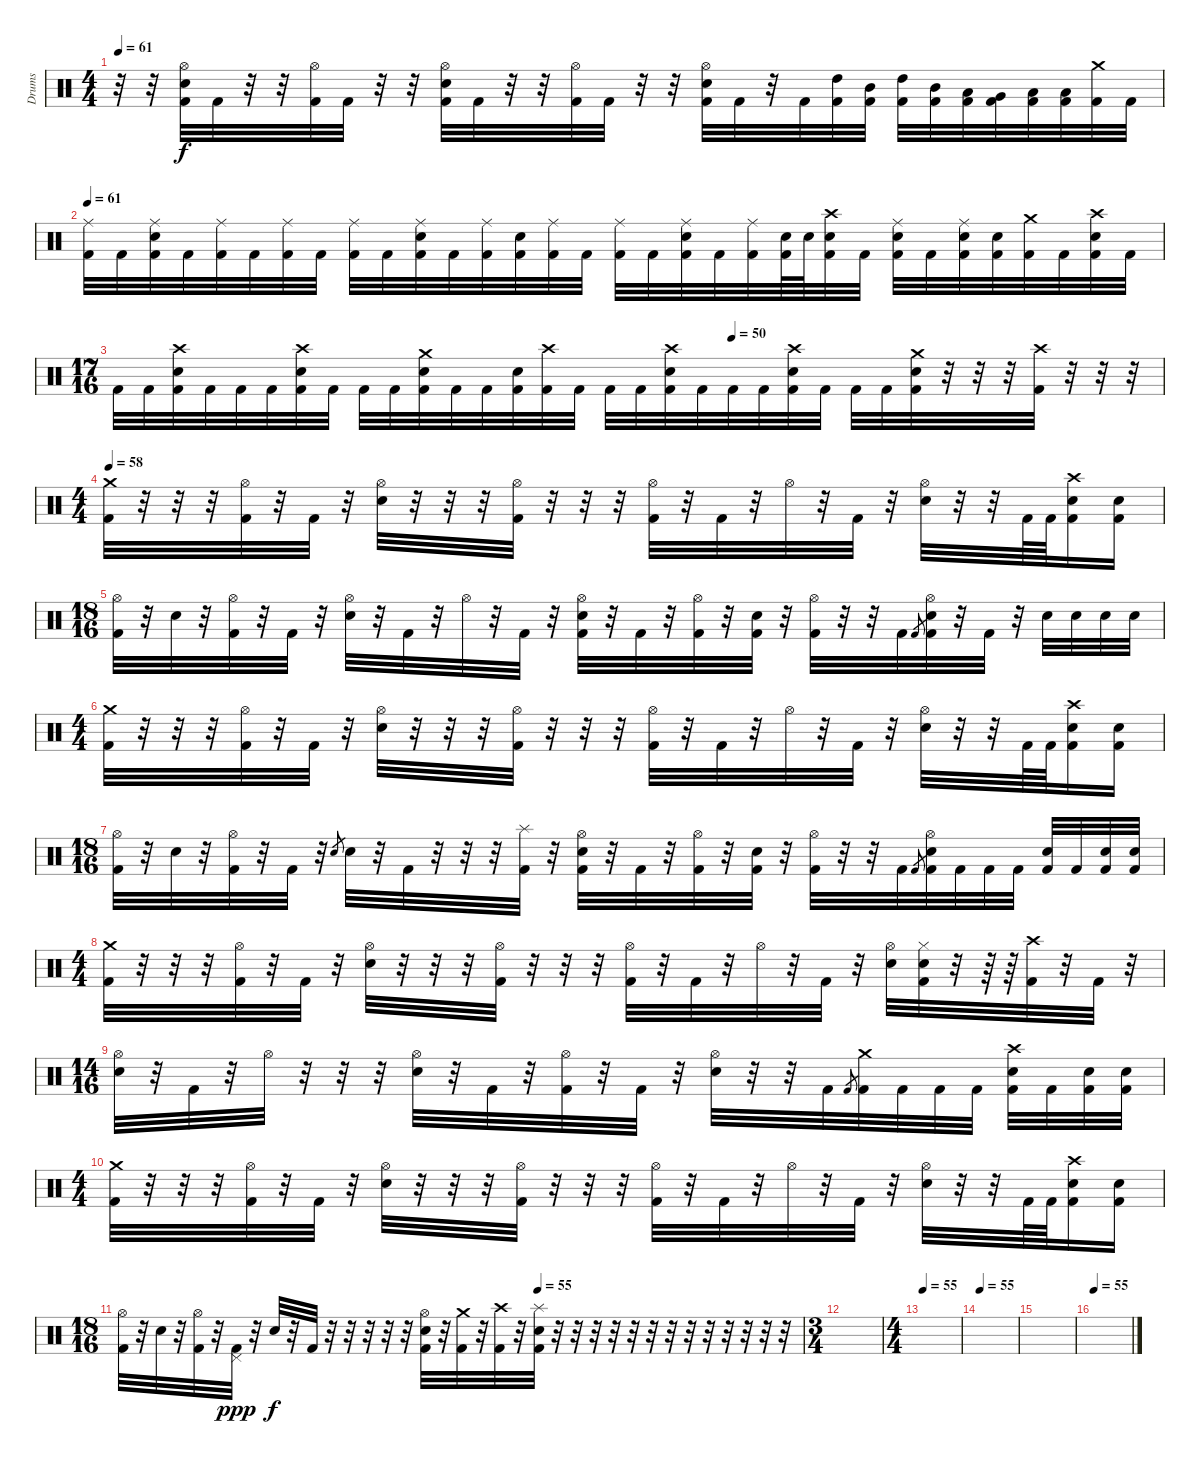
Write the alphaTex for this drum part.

\track ("Drums" "Drums") {instrument percussion}
\staff {score}
\articulation defaults
\ts (4 4)
\tempo 61
\clef neutral
\ks c
r.32{dy f} r.32 ("Hi-Hat (open)" "Electric Snare (hit)" "Kick (hit) 2").32 "Kick (hit) 2".32 r.32 r.32 ("Hi-Hat (open)" "Kick (hit) 2").32 "Kick (hit) 2".32 r.32 r.32 ("Hi-Hat (open)" "Electric Snare (hit)" "Kick (hit) 2").32 "Kick (hit) 2".32 r.32 r.32 ("Hi-Hat (open)" "Kick (hit) 2").32 "Kick (hit) 2".32 r.32 r.32 ("Hi-Hat (open)" "Electric Snare (hit)" "Kick (hit) 2").32 "Kick (hit) 2".32 r.32 "Kick (hit) 2".32 ("High Tom (hit)" "Kick (hit) 2").32 ("Mid Tom (hit)" "Kick (hit) 2").32 ("High Tom (hit)" "Kick (hit) 2").32 ("Mid Tom (hit)" "Kick (hit) 2").32 ("Low Tom (hit)" "Kick (hit) 2").32 ("Very Low Tom (hit)" "Kick (hit) 2").32 ("Low Floor Tom (hit)" "Kick (hit) 2").32 ("Low Floor Tom (hit)" "Kick (hit) 2").32 ("Crash medium (hit)" "Kick (hit) 2").32 "Kick (hit) 2".32 |
\tempo 61
("Ride (middle)" "Kick (hit) 2").32 "Kick (hit) 2".32 ("Ride (middle)" "Electric Snare (hit)" "Kick (hit) 2").32 "Kick (hit) 2".32 ("Ride (middle)" "Kick (hit) 2").32 "Kick (hit) 2".32 ("Ride (middle)" "Kick (hit) 2").32 "Kick (hit) 2".32 ("Ride (middle)" "Kick (hit) 2").32 "Kick (hit) 2".32 ("Ride (middle)" "Electric Snare (hit)" "Kick (hit) 2").32 "Kick (hit) 2".32 ("Ride (middle)" "Kick (hit) 2").32 ("Electric Snare (hit)" "Kick (hit) 2").32 ("Ride (middle)" "Kick (hit) 2").32 "Kick (hit) 2".32 ("Ride (middle)" "Kick (hit) 2").32 "Kick (hit) 2".32 ("Ride (middle)" "Electric Snare (hit)" "Kick (hit) 2").32 "Kick (hit) 2".32 ("Ride (middle)" "Kick (hit) 2").32 ("Electric Snare (hit)" "Kick (hit) 2").64 "Electric Snare (hit)".64 ("Crash high (hit)" "Electric Snare (hit)" "Kick (hit) 2").32 "Kick (hit) 2".32 ("Ride (middle)" "Electric Snare (hit)" "Kick (hit) 2").32 "Kick (hit) 2".32 ("Ride (middle)" "Electric Snare (hit)" "Kick (hit) 2").32 ("Electric Snare (hit)" "Kick (hit) 2").32 ("Crash medium (hit)" "Kick (hit) 2").32 "Kick (hit) 2".32 ("Crash high (hit)" "Electric Snare (hit)" "Kick (hit) 2").32 "Kick (hit) 2".32 |
\ts (17 16)
\tempo (50 0.5882352941176471)
"Kick (hit) 2".32 "Kick (hit) 2".32 ("Crash high (hit)" "Electric Snare (hit)" "Kick (hit) 2").32 "Kick (hit) 2".32 "Kick (hit) 2".32 "Kick (hit) 2".32 ("Crash high (hit)" "Electric Snare (hit)" "Kick (hit) 2").32 "Kick (hit) 2".32 "Kick (hit) 2".32 "Kick (hit) 2".32 ("Crash medium (hit)" "Electric Snare (hit)" "Kick (hit) 2").32 "Kick (hit) 2".32 "Kick (hit) 2".32 ("Electric Snare (hit)" "Kick (hit) 2").32 ("Crash high (hit)" "Kick (hit) 2").32 "Kick (hit) 2".32 "Kick (hit) 2".32 "Kick (hit) 2".32 ("Crash high (hit)" "Electric Snare (hit)" "Kick (hit) 2").32 "Kick (hit) 2".32 "Kick (hit) 2".32 "Kick (hit) 2".32 ("Crash high (hit)" "Electric Snare (hit)" "Kick (hit) 2").32 "Kick (hit) 2".32 "Kick (hit) 2".32 "Kick (hit) 2".32 ("Crash medium (hit)" "Electric Snare (hit)" "Kick (hit) 2").32 r.32 r.32 r.32 ("Crash high (hit)" "Kick (hit) 2").32 r.32 r.32 r.32 |
\ts (4 4)
\tempo 58
("Crash medium (hit)" "Kick (hit) 2").32 r.32 r.32 r.32 ("Hi-Hat (open)" "Kick (hit) 2").32 r.32 "Kick (hit) 2".32 r.32 ("Hi-Hat (open)" "Electric Snare (hit)").32 r.32 r.32 r.32 ("Hi-Hat (open)" "Kick (hit) 2").32 r.32 r.32 r.32 ("Hi-Hat (open)" "Kick (hit) 2").32 r.32 "Kick (hit) 2".32 r.32 "Hi-Hat (open)".32 r.32 "Kick (hit) 2".32 r.32 ("Hi-Hat (open)" "Electric Snare (hit)").32 r.32 r.32 "Kick (hit) 2".64 "Kick (hit) 2".64 ("Crash high (hit)" "Electric Snare (hit)" "Kick (hit) 2").16 ("Electric Snare (hit)" "Kick (hit) 2").16 |
\ts (18 16)
("Hi-Hat (open)" "Kick (hit) 2").32 r.32 "Electric Snare (hit)".32 r.32 ("Hi-Hat (open)" "Kick (hit) 2").32 r.32 "Kick (hit) 2".32 r.32 ("Hi-Hat (open)" "Electric Snare (hit)").32 r.32 "Kick (hit) 2".32 r.32 "Hi-Hat (open)".32 r.32 "Kick (hit) 2".32 r.32 ("Hi-Hat (open)" "Electric Snare (hit)" "Kick (hit) 2").32 r.32 "Kick (hit) 2".32 r.32 ("Hi-Hat (open)" "Kick (hit) 2").32 r.32 ("Electric Snare (hit)" "Kick (hit) 2").32 r.32 ("Hi-Hat (open)" "Kick (hit) 2").32 r.32 r.32 "Kick (hit) 2".32 "Kick (hit) 2".8{gr} ("Hi-Hat (open)" "Electric Snare (hit)" "Kick (hit) 2").32 r.32 "Kick (hit) 2".32 r.32 "Electric Snare (hit)".32 "Electric Snare (hit)".32 "Electric Snare (hit)".32 "Electric Snare (hit)".32 |
\ts (4 4)
("Crash medium (hit)" "Kick (hit) 2").32 r.32 r.32 r.32 ("Hi-Hat (open)" "Kick (hit) 2").32 r.32 "Kick (hit) 2".32 r.32 ("Hi-Hat (open)" "Electric Snare (hit)").32 r.32 r.32 r.32 ("Hi-Hat (open)" "Kick (hit) 2").32 r.32 r.32 r.32 ("Hi-Hat (open)" "Kick (hit) 2").32 r.32 "Kick (hit) 2".32 r.32 "Hi-Hat (open)".32 r.32 "Kick (hit) 2".32 r.32 ("Hi-Hat (open)" "Electric Snare (hit)").32 r.32 r.32 "Kick (hit) 2".64 "Kick (hit) 2".64 ("Crash high (hit)" "Electric Snare (hit)" "Kick (hit) 2").16 ("Electric Snare (hit)" "Kick (hit) 2").16 |
\ts (18 16)
("Hi-Hat (open)" "Kick (hit) 2").32 r.32 "Electric Snare (hit)".32 r.32 ("Hi-Hat (open)" "Kick (hit) 2").32 r.32 "Kick (hit) 2".32 r.32 "Electric Snare (hit)".8{gr} "Electric Snare (hit)".32 r.32 "Kick (hit) 2".32 r.32 r.32 r.32 ("Splash (hit)" "Kick (hit) 2").32 r.32 ("Hi-Hat (open)" "Electric Snare (hit)" "Kick (hit) 2").32 r.32 "Kick (hit) 2".32 r.32 ("Hi-Hat (open)" "Kick (hit) 2").32 r.32 ("Electric Snare (hit)" "Kick (hit) 2").32 r.32 ("Hi-Hat (open)" "Kick (hit) 2").32 r.32 r.32 "Kick (hit) 2".32 "Kick (hit) 2".8{gr} ("Hi-Hat (open)" "Electric Snare (hit)" "Kick (hit) 2").32 "Kick (hit) 2".32 "Kick (hit) 2".32 "Kick (hit) 2".32 ("Electric Snare (hit)" "Kick (hit) 2").32 "Kick (hit) 2".32 ("Electric Snare (hit)" "Kick (hit) 2").32 ("Electric Snare (hit)" "Kick (hit) 2").32 |
\ts (4 4)
("Crash medium (hit)" "Kick (hit) 2").32 r.32 r.32 r.32 ("Hi-Hat (open)" "Kick (hit) 2").32 r.32 "Kick (hit) 2".32 r.32 ("Hi-Hat (open)" "Electric Snare (hit)").32 r.32 r.32 r.32 ("Hi-Hat (open)" "Kick (hit) 2").32 r.32 r.32 r.32 ("Hi-Hat (open)" "Kick (hit) 2").32 r.32 "Kick (hit) 2".32 r.32 "Hi-Hat (open)".32 r.32 "Kick (hit) 2".32 r.32 ("Hi-Hat (open)" "Electric Snare (hit)").32 ("Hi-Hat (closed)" "Electric Snare (hit)" "Kick (hit) 2").32 r.32 r.64 r.64 ("Crash high (hit)" "Kick (hit) 2").32 r.32 "Kick (hit) 2".32 r.32 |
\ts (14 16)
("Hi-Hat (open)" "Electric Snare (hit)").32 r.32 "Kick (hit) 2".32 r.32 "Hi-Hat (open)".32 r.32 r.32 r.32 ("Hi-Hat (open)" "Electric Snare (hit)").32 r.32 "Kick (hit) 2".32 r.32 ("Hi-Hat (open)" "Kick (hit) 2").32 r.32 "Kick (hit) 2".32 r.32 ("Hi-Hat (open)" "Electric Snare (hit)").32 r.32 r.32 "Kick (hit) 2".32 "Kick (hit) 2".8{gr} ("Crash medium (hit)" "Kick (hit) 2").32 "Kick (hit) 2".32 "Kick (hit) 2".32 "Kick (hit) 2".32 ("Crash high (hit)" "Electric Snare (hit)" "Kick (hit) 2").32 "Kick (hit) 2".32 ("Electric Snare (hit)" "Kick (hit) 2").32 ("Electric Snare (hit)" "Kick (hit) 2").32 |
\ts (4 4)
("Crash medium (hit)" "Kick (hit) 2").32 r.32 r.32 r.32 ("Hi-Hat (open)" "Kick (hit) 2").32 r.32 "Kick (hit) 2".32 r.32 ("Hi-Hat (open)" "Electric Snare (hit)").32 r.32 r.32 r.32 ("Hi-Hat (open)" "Kick (hit) 2").32 r.32 r.32 r.32 ("Hi-Hat (open)" "Kick (hit) 2").32 r.32 "Kick (hit) 2".32 r.32 "Hi-Hat (open)".32 r.32 "Kick (hit) 2".32 r.32 ("Hi-Hat (open)" "Electric Snare (hit)").32 r.32 r.32 "Kick (hit) 2".64 "Kick (hit) 2".64 ("Crash high (hit)" "Electric Snare (hit)" "Kick (hit) 2").16 ("Electric Snare (hit)" "Kick (hit) 2").16 |
\ts (18 16)
\tempo (55 0.6111111111111112)
("Hi-Hat (open)" "Kick (hit) 2").32 r.32 "Electric Snare (hit)".32 r.32 ("Hi-Hat (open)" "Kick (hit) 2").32 r.32 ("Pedal Hi-Hat (hit)" "Kick (hit) 2").32{dy ppp} r.32 "Electric Snare (hit)".32{dy f} r.32 "Kick (hit) 2".32 r.32 r.32 r.32 r.32 r.32 ("Hi-Hat (open)" "Electric Snare (hit)" "Kick (hit) 2").32 r.32 ("Crash medium (hit)" "Kick (hit) 2").32 r.32 ("Crash high (hit)" "Kick (hit) 2").32 r.32 ("Splash (hit)" "Electric Snare (hit)" "Kick (hit) 2").32 r.32 r.32 r.32 r.32 r.32 r.32 r.32 r.32 r.32 r.32 r.32 r.32 r.32 |
\ts (3 4)
|
\ts (4 4)
\tempo 55
|
\tempo 55
|
|
\tempo 55
